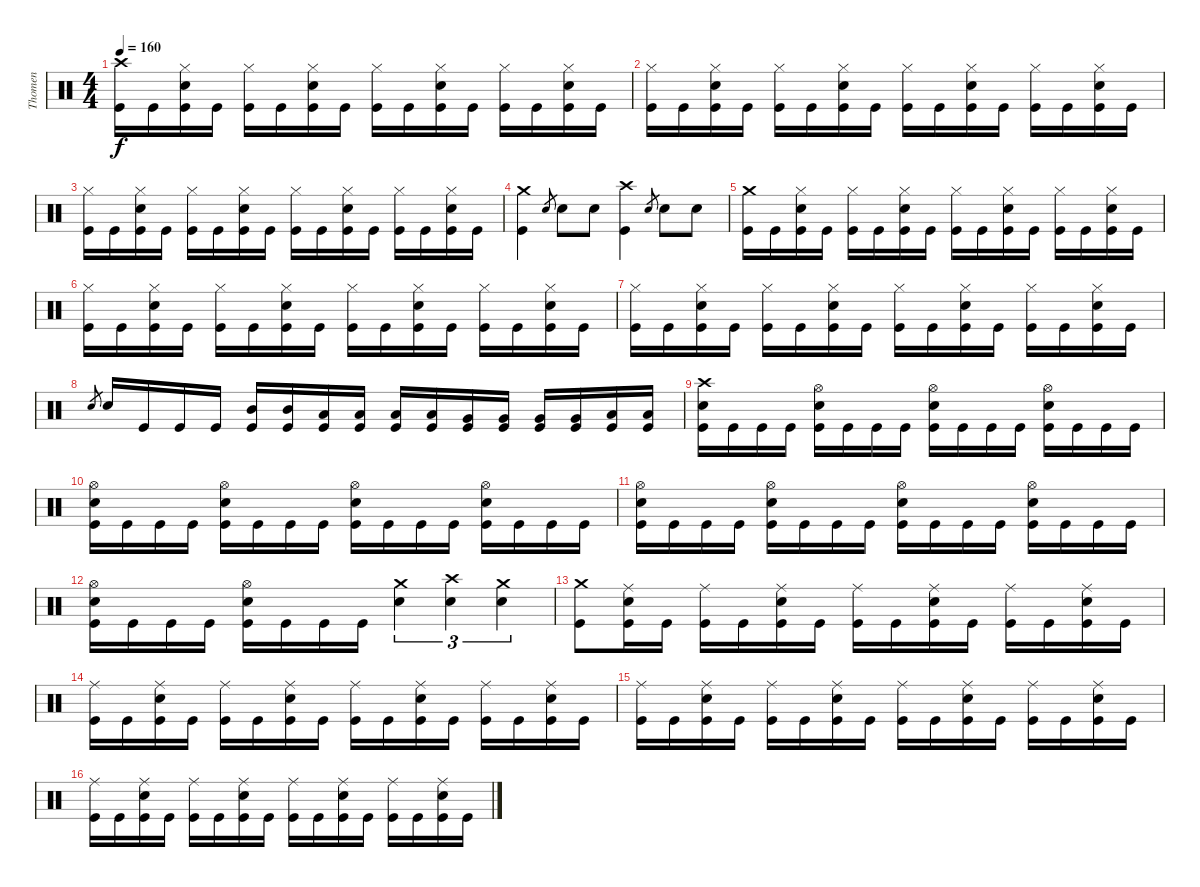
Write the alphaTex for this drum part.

\track ("Thomen" "Thomen") {instrument percussion}
\staff {score}
\articulation defaults
\ts (4 4)
\tempo 160
\clef neutral
\ks c
("Crash high (hit)" "Kick (hit)").16{dy f} "Kick (hit)".16 ("Hi-Hat (closed)" "Snare (hit) 2" "Kick (hit)").16 "Kick (hit)".16 ("Hi-Hat (closed)" "Kick (hit)").16 "Kick (hit)".16 ("Hi-Hat (closed)" "Snare (hit) 2" "Kick (hit)").16 "Kick (hit)".16 ("Hi-Hat (closed)" "Kick (hit)").16 "Kick (hit)".16 ("Hi-Hat (closed)" "Snare (hit) 2" "Kick (hit)").16 "Kick (hit)".16 ("Hi-Hat (closed)" "Kick (hit)").16 "Kick (hit)".16 ("Hi-Hat (closed)" "Snare (hit) 2" "Kick (hit)").16 "Kick (hit)".16 |
("Hi-Hat (closed)" "Kick (hit)").16 "Kick (hit)".16 ("Hi-Hat (closed)" "Snare (hit) 2" "Kick (hit)").16 "Kick (hit)".16 ("Hi-Hat (closed)" "Kick (hit)").16 "Kick (hit)".16 ("Hi-Hat (closed)" "Snare (hit) 2" "Kick (hit)").16 "Kick (hit)".16 ("Hi-Hat (closed)" "Kick (hit)").16 "Kick (hit)".16 ("Hi-Hat (closed)" "Snare (hit) 2" "Kick (hit)").16 "Kick (hit)".16 ("Hi-Hat (closed)" "Kick (hit)").16 "Kick (hit)".16 ("Hi-Hat (closed)" "Snare (hit) 2" "Kick (hit)").16 "Kick (hit)".16 |
("Hi-Hat (closed)" "Kick (hit)").16 "Kick (hit)".16 ("Hi-Hat (closed)" "Snare (hit) 2" "Kick (hit)").16 "Kick (hit)".16 ("Hi-Hat (closed)" "Kick (hit)").16 "Kick (hit)".16 ("Hi-Hat (closed)" "Snare (hit) 2" "Kick (hit)").16 "Kick (hit)".16 ("Hi-Hat (closed)" "Kick (hit)").16 "Kick (hit)".16 ("Hi-Hat (closed)" "Snare (hit) 2" "Kick (hit)").16 "Kick (hit)".16 ("Hi-Hat (closed)" "Kick (hit)").16 "Kick (hit)".16 ("Hi-Hat (closed)" "Snare (hit) 2" "Kick (hit)").16 "Kick (hit)".16 |
("Crash medium (hit)" "Kick (hit)").4 "Snare (hit) 2".8{gr} "Snare (hit) 2".8 "Snare (hit) 2".8 ("Crash high (hit)" "Kick (hit)").4 "Snare (hit) 2".8{gr} "Snare (hit) 2".8 "Snare (hit) 2".8 |
("Crash medium (hit)" "Kick (hit)").16 "Kick (hit)".16 ("Hi-Hat (closed)" "Snare (hit) 2" "Kick (hit)").16 "Kick (hit)".16 ("Hi-Hat (closed)" "Kick (hit)").16 "Kick (hit)".16 ("Hi-Hat (closed)" "Snare (hit) 2" "Kick (hit)").16 "Kick (hit)".16 ("Hi-Hat (closed)" "Kick (hit)").16 "Kick (hit)".16 ("Hi-Hat (closed)" "Snare (hit) 2" "Kick (hit)").16 "Kick (hit)".16 ("Hi-Hat (closed)" "Kick (hit)").16 "Kick (hit)".16 ("Hi-Hat (closed)" "Snare (hit) 2" "Kick (hit)").16 "Kick (hit)".16 |
("Hi-Hat (closed)" "Kick (hit)").16 "Kick (hit)".16 ("Hi-Hat (closed)" "Snare (hit) 2" "Kick (hit)").16 "Kick (hit)".16 ("Hi-Hat (closed)" "Kick (hit)").16 "Kick (hit)".16 ("Hi-Hat (closed)" "Snare (hit) 2" "Kick (hit)").16 "Kick (hit)".16 ("Hi-Hat (closed)" "Kick (hit)").16 "Kick (hit)".16 ("Hi-Hat (closed)" "Snare (hit) 2" "Kick (hit)").16 "Kick (hit)".16 ("Hi-Hat (closed)" "Kick (hit)").16 "Kick (hit)".16 ("Hi-Hat (closed)" "Snare (hit) 2" "Kick (hit)").16 "Kick (hit)".16 |
("Hi-Hat (closed)" "Kick (hit)").16 "Kick (hit)".16 ("Hi-Hat (closed)" "Snare (hit) 2" "Kick (hit)").16 "Kick (hit)".16 ("Hi-Hat (closed)" "Kick (hit)").16 "Kick (hit)".16 ("Hi-Hat (closed)" "Snare (hit) 2" "Kick (hit)").16 "Kick (hit)".16 ("Hi-Hat (closed)" "Kick (hit)").16 "Kick (hit)".16 ("Hi-Hat (closed)" "Snare (hit) 2" "Kick (hit)").16 "Kick (hit)".16 ("Hi-Hat (closed)" "Kick (hit)").16 "Kick (hit)".16 ("Hi-Hat (closed)" "Snare (hit) 2" "Kick (hit)").16 "Kick (hit)".16 |
"Snare (hit) 2".8{gr} "Snare (hit) 2".16 "Kick (hit)".16 "Kick (hit)".16 "Kick (hit)".16 ("Mid Tom (hit)" "Kick (hit)").16 ("Mid Tom (hit)" "Kick (hit)").16 ("Low Tom (hit)" "Kick (hit)").16 ("Low Tom (hit)" "Kick (hit)").16 ("Low Tom (hit)" "Kick (hit)").16 ("Low Tom (hit)" "Kick (hit)").16 ("Very Low Tom (hit)" "Kick (hit)").16 ("Very Low Tom (hit)" "Kick (hit)").16 ("Very Low Tom (hit)" "Kick (hit)").16 ("Very Low Tom (hit)" "Kick (hit)").16 ("Low Floor Tom (hit)" "Kick (hit)").16 ("Low Floor Tom (hit)" "Kick (hit)").16 |
("Crash high (hit)" "Snare (hit) 2" "Kick (hit)").16 "Kick (hit)".16 "Kick (hit)".16 "Kick (hit)".16 ("Hi-Hat (open)" "Snare (hit) 2" "Kick (hit)").16 "Kick (hit)".16 "Kick (hit)".16 "Kick (hit)".16 ("Hi-Hat (open)" "Snare (hit) 2" "Kick (hit)").16 "Kick (hit)".16 "Kick (hit)".16 "Kick (hit)".16 ("Hi-Hat (open)" "Snare (hit) 2" "Kick (hit)").16 "Kick (hit)".16 "Kick (hit)".16 "Kick (hit)".16 |
("Hi-Hat (open)" "Snare (hit) 2" "Kick (hit)").16 "Kick (hit)".16 "Kick (hit)".16 "Kick (hit)".16 ("Hi-Hat (open)" "Snare (hit) 2" "Kick (hit)").16 "Kick (hit)".16 "Kick (hit)".16 "Kick (hit)".16 ("Hi-Hat (open)" "Snare (hit) 2" "Kick (hit)").16 "Kick (hit)".16 "Kick (hit)".16 "Kick (hit)".16 ("Hi-Hat (open)" "Snare (hit) 2" "Kick (hit)").16 "Kick (hit)".16 "Kick (hit)".16 "Kick (hit)".16 |
("Hi-Hat (open)" "Snare (hit) 2" "Kick (hit)").16 "Kick (hit)".16 "Kick (hit)".16 "Kick (hit)".16 ("Hi-Hat (open)" "Snare (hit) 2" "Kick (hit)").16 "Kick (hit)".16 "Kick (hit)".16 "Kick (hit)".16 ("Hi-Hat (open)" "Snare (hit) 2" "Kick (hit)").16 "Kick (hit)".16 "Kick (hit)".16 "Kick (hit)".16 ("Hi-Hat (open)" "Snare (hit) 2" "Kick (hit)").16 "Kick (hit)".16 "Kick (hit)".16 "Kick (hit)".16 |
("Hi-Hat (open)" "Snare (hit) 2" "Kick (hit)").16 "Kick (hit)".16 "Kick (hit)".16 "Kick (hit)".16 ("Hi-Hat (open)" "Snare (hit) 2" "Kick (hit)").16 "Kick (hit)".16 "Kick (hit)".16 "Kick (hit)".16 ("Crash medium (hit)" "Snare (hit) 2").4{tu (3 2)} ("Crash high (hit)" "Snare (hit) 2").4{tu (3 2)} ("Crash medium (hit)" "Snare (hit) 2").4{tu (3 2)} |
("Crash medium (hit)" "Kick (hit)").8 ("Ride (middle)" "Snare (hit) 2" "Kick (hit)").16 "Kick (hit)".16 ("Ride (middle)" "Kick (hit)").16 "Kick (hit)".16 ("Ride (middle)" "Snare (hit) 2" "Kick (hit)").16 "Kick (hit)".16 ("Ride (middle)" "Kick (hit)").16 "Kick (hit)".16 ("Ride (middle)" "Snare (hit) 2" "Kick (hit)").16 "Kick (hit)".16 ("Ride (middle)" "Kick (hit)").16 "Kick (hit)".16 ("Ride (middle)" "Snare (hit) 2" "Kick (hit)").16 "Kick (hit)".16 |
("Ride (middle)" "Kick (hit)").16 "Kick (hit)".16 ("Ride (middle)" "Snare (hit) 2" "Kick (hit)").16 "Kick (hit)".16 ("Ride (middle)" "Kick (hit)").16 "Kick (hit)".16 ("Ride (middle)" "Snare (hit) 2" "Kick (hit)").16 "Kick (hit)".16 ("Ride (middle)" "Kick (hit)").16 "Kick (hit)".16 ("Ride (middle)" "Snare (hit) 2" "Kick (hit)").16 "Kick (hit)".16 ("Ride (middle)" "Kick (hit)").16 "Kick (hit)".16 ("Ride (middle)" "Snare (hit) 2" "Kick (hit)").16 "Kick (hit)".16 |
("Ride (middle)" "Kick (hit)").16 "Kick (hit)".16 ("Ride (middle)" "Snare (hit) 2" "Kick (hit)").16 "Kick (hit)".16 ("Ride (middle)" "Kick (hit)").16 "Kick (hit)".16 ("Ride (middle)" "Snare (hit) 2" "Kick (hit)").16 "Kick (hit)".16 ("Ride (middle)" "Kick (hit)").16 "Kick (hit)".16 ("Ride (middle)" "Snare (hit) 2" "Kick (hit)").16 "Kick (hit)".16 ("Ride (middle)" "Kick (hit)").16 "Kick (hit)".16 ("Ride (middle)" "Snare (hit) 2" "Kick (hit)").16 "Kick (hit)".16 |
("Ride (middle)" "Kick (hit)").16 "Kick (hit)".16 ("Ride (middle)" "Snare (hit) 2" "Kick (hit)").16 "Kick (hit)".16 ("Ride (middle)" "Kick (hit)").16 "Kick (hit)".16 ("Ride (middle)" "Snare (hit) 2" "Kick (hit)").16 "Kick (hit)".16 ("Ride (middle)" "Kick (hit)").16 "Kick (hit)".16 ("Ride (middle)" "Snare (hit) 2" "Kick (hit)").16 "Kick (hit)".16 ("Ride (middle)" "Kick (hit)").16 "Kick (hit)".16 ("Ride (middle)" "Snare (hit) 2" "Kick (hit)").16 "Kick (hit)".16
